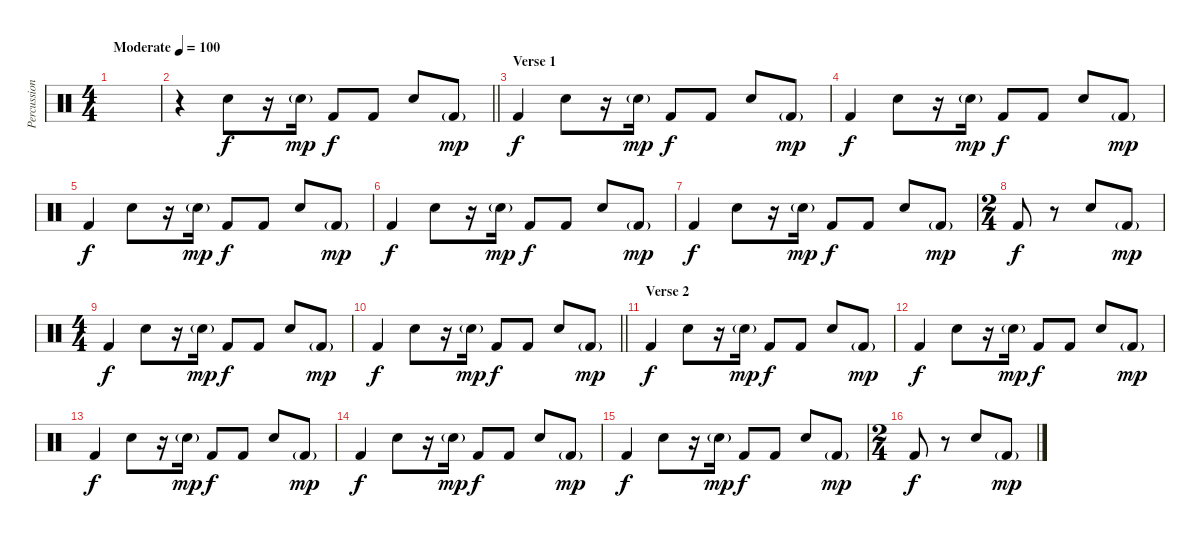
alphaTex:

\track ("Percussion" "Percussion") {instrument percussion}
\staff {score}
\articulation defaults
\ts (4 4)
\tempo (100 "Moderate")
\clef neutral
\ks c
|
\barLineRight lightlight
r.4 "Snare (hit) 2".8 r.16 "Snare (hit) 2"{g}.16{dy mp} "Kick (hit) 2".8{dy f} "Kick (hit) 2".8 "Snare (hit) 2".8 "Kick (hit) 2"{g}.8{dy mp} |
\section ("" "Verse 1")
"Kick (hit) 2".4{dy f} "Snare (hit) 2".8 r.16 "Snare (hit) 2"{g}.16{dy mp} "Kick (hit) 2".8{dy f} "Kick (hit) 2".8 "Snare (hit) 2".8 "Kick (hit) 2"{g}.8{dy mp} |
"Kick (hit) 2".4{dy f} "Snare (hit) 2".8 r.16 "Snare (hit) 2"{g}.16{dy mp} "Kick (hit) 2".8{dy f} "Kick (hit) 2".8 "Snare (hit) 2".8 "Kick (hit) 2"{g}.8{dy mp} |
"Kick (hit) 2".4{dy f} "Snare (hit) 2".8 r.16 "Snare (hit) 2"{g}.16{dy mp} "Kick (hit) 2".8{dy f} "Kick (hit) 2".8 "Snare (hit) 2".8 "Kick (hit) 2"{g}.8{dy mp} |
"Kick (hit) 2".4{dy f} "Snare (hit) 2".8 r.16 "Snare (hit) 2"{g}.16{dy mp} "Kick (hit) 2".8{dy f} "Kick (hit) 2".8 "Snare (hit) 2".8 "Kick (hit) 2"{g}.8{dy mp} |
"Kick (hit) 2".4{dy f} "Snare (hit) 2".8 r.16 "Snare (hit) 2"{g}.16{dy mp} "Kick (hit) 2".8{dy f} "Kick (hit) 2".8 "Snare (hit) 2".8 "Kick (hit) 2"{g}.8{dy mp} |
\ts (2 4)
"Kick (hit) 2".8{dy f} r.8 "Snare (hit) 2".8 "Kick (hit) 2"{g}.8{dy mp} |
\ts (4 4)
"Kick (hit) 2".4{dy f} "Snare (hit) 2".8 r.16 "Snare (hit) 2"{g}.16{dy mp} "Kick (hit) 2".8{dy f} "Kick (hit) 2".8 "Snare (hit) 2".8 "Kick (hit) 2"{g}.8{dy mp} |
\barLineRight lightlight "Kick (hit) 2".4{dy f} "Snare (hit) 2".8
r.16 "Snare (hit) 2"{g}.16{dy mp} "Kick (hit) 2".8{dy f} "Kick (hit) 2".8 "Snare (hit) 2".8 "Kick (hit) 2"{g}.8{dy mp} |
\section ("" "Verse 2")
"Kick (hit) 2".4{dy f} "Snare (hit) 2".8 r.16 "Snare (hit) 2"{g}.16{dy mp} "Kick (hit) 2".8{dy f} "Kick (hit) 2".8 "Snare (hit) 2".8 "Kick (hit) 2"{g}.8{dy mp} |
"Kick (hit) 2".4{dy f} "Snare (hit) 2".8 r.16 "Snare (hit) 2"{g}.16{dy mp} "Kick (hit) 2".8{dy f} "Kick (hit) 2".8 "Snare (hit) 2".8 "Kick (hit) 2"{g}.8{dy mp} |
"Kick (hit) 2".4{dy f} "Snare (hit) 2".8 r.16 "Snare (hit) 2"{g}.16{dy mp} "Kick (hit) 2".8{dy f} "Kick (hit) 2".8 "Snare (hit) 2".8 "Kick (hit) 2"{g}.8{dy mp} |
"Kick (hit) 2".4{dy f} "Snare (hit) 2".8 r.16 "Snare (hit) 2"{g}.16{dy mp} "Kick (hit) 2".8{dy f} "Kick (hit) 2".8 "Snare (hit) 2".8 "Kick (hit) 2"{g}.8{dy mp} |
"Kick (hit) 2".4{dy f} "Snare (hit) 2".8 r.16 "Snare (hit) 2"{g}.16{dy mp} "Kick (hit) 2".8{dy f} "Kick (hit) 2".8 "Snare (hit) 2".8 "Kick (hit) 2"{g}.8{dy mp} |
\ts (2 4)
"Kick (hit) 2".8{dy f} r.8 "Snare (hit) 2".8 "Kick (hit) 2"{g}.8{dy mp}
